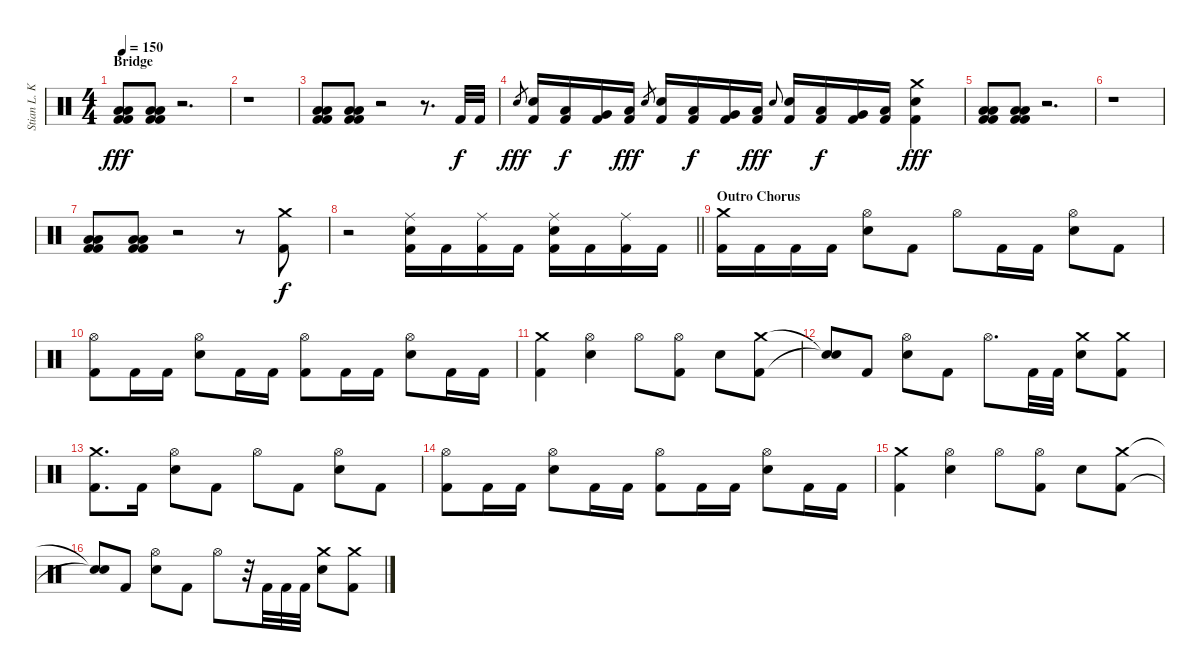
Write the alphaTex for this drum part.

\track ("Stian L. Kristoffersen" "Stian L. K") {instrument percussion}
\staff {score}
\articulation defaults
\ts (4 4)
\section ("" "Bridge")
\tempo 150
\clef neutral
\ks c
("Low Tom (hit)" "Low Tom (hit)" "Kick (hit) 2" "Kick (hit) 2").8{dy fff} ("Low Tom (hit)" "Low Tom (hit)" "Kick (hit) 2" "Kick (hit) 2").8 r.2{d} |
r.1 |
("Low Tom (hit)" "Low Tom (hit)" "Kick (hit) 2" "Kick (hit) 2").8 ("Low Tom (hit)" "Low Tom (hit)" "Kick (hit) 2" "Kick (hit) 2").8 r.2 r.8{d} "Kick (hit) 2".32{dy f} "Kick (hit) 2".32 |
"Electric Snare (hit)".8{gr dy fff} ("Electric Snare (hit)" "Kick (hit) 2").16 ("Low Tom (hit)" "Kick (hit) 2").16{dy f} ("Very Low Tom (hit)" "Kick (hit) 2").16 ("Low Floor Tom (hit)" "Kick (hit) 2").16{dy fff} "Electric Snare (hit)".8{gr} ("Electric Snare (hit)" "Kick (hit) 2").16 ("Low Tom (hit)" "Kick (hit) 2").16{dy f} ("Very Low Tom (hit)" "Kick (hit) 2").16 ("Low Floor Tom (hit)" "Kick (hit) 2").16{dy fff} "Electric Snare (hit)".8{gr onbeat} ("Electric Snare (hit)" "Kick (hit) 2").16 ("Low Tom (hit)" "Kick (hit) 2").16{dy f} ("Very Low Tom (hit)" "Kick (hit) 2").16 ("Low Floor Tom (hit)" "Kick (hit) 2").16 ("Crash medium (hit)" "Electric Snare (hit)" "Kick (hit) 2").4{dy fff} |
("Low Tom (hit)" "Low Tom (hit)" "Kick (hit) 2" "Kick (hit) 2").8 ("Low Tom (hit)" "Low Tom (hit)" "Kick (hit) 2" "Kick (hit) 2").8 r.2{d} |
r.1 |
("Low Tom (hit)" "Low Tom (hit)" "Kick (hit) 2" "Kick (hit) 2").8 ("Low Tom (hit)" "Low Tom (hit)" "Kick (hit) 2" "Kick (hit) 2").8 r.2 r.8 ("Crash medium (hit)" "Kick (hit) 2").8{dy f} |
\barLineRight lightlight
r.2 ("Ride (middle)" "Electric Snare (hit)" "Kick (hit) 2").16 "Kick (hit) 2".16 ("Ride (middle)" "Kick (hit) 2").16 "Kick (hit) 2".16 ("Ride (middle)" "Electric Snare (hit)" "Kick (hit) 2").16 "Kick (hit) 2".16 ("Ride (middle)" "Kick (hit) 2").16 "Kick (hit) 2".16 |
\section ("" "Outro Chorus")
("Crash medium (hit)" "Kick (hit) 2").16 "Kick (hit) 2".16 "Kick (hit) 2".16 "Kick (hit) 2".16 ("Hi-Hat (open)" "Electric Snare (hit)").8 "Kick (hit) 2".8 "Hi-Hat (open)".8 "Kick (hit) 2".16 "Kick (hit) 2".16 ("Hi-Hat (open)" "Electric Snare (hit)").8 "Kick (hit) 2".8 |
("Hi-Hat (open)" "Kick (hit) 2").8 "Kick (hit) 2".16 "Kick (hit) 2".16 ("Hi-Hat (open)" "Electric Snare (hit)").8 "Kick (hit) 2".16 "Kick (hit) 2".16 ("Hi-Hat (open)" "Kick (hit) 2").8 "Kick (hit) 2".16 "Kick (hit) 2".16 ("Hi-Hat (open)" "Electric Snare (hit)").8 "Kick (hit) 2".16 "Kick (hit) 2".16 |
("Crash medium (hit)" "Kick (hit) 2").4 ("Hi-Hat (open)" "Electric Snare (hit)").4 "Hi-Hat (open)".8 ("Hi-Hat (open)" "Kick (hit) 2").8 "Electric Snare (hit)".8 ("Crash medium (hit)" "Kick (hit) 2").8 |
("Snare (hit)"{t} "Snare (hit)"{t}).8 "Kick (hit) 2".8 ("Hi-Hat (open)" "Electric Snare (hit)").8 "Kick (hit) 2".8 "Hi-Hat (open)".8{d} "Kick (hit) 2".32 "Kick (hit) 2".32 ("Crash medium (hit)" "Electric Snare (hit)").8 ("Crash medium (hit)" "Kick (hit) 2").8 |
("Crash medium (hit)" "Kick (hit) 2").8{d} "Kick (hit) 2".16 ("Hi-Hat (open)" "Electric Snare (hit)").8 "Kick (hit) 2".8 "Hi-Hat (open)".8 "Kick (hit) 2".8 ("Hi-Hat (open)" "Electric Snare (hit)").8 "Kick (hit) 2".8 |
("Hi-Hat (open)" "Kick (hit) 2").8 "Kick (hit) 2".16 "Kick (hit) 2".16 ("Hi-Hat (open)" "Electric Snare (hit)").8 "Kick (hit) 2".16 "Kick (hit) 2".16 ("Hi-Hat (open)" "Kick (hit) 2").8 "Kick (hit) 2".16 "Kick (hit) 2".16 ("Hi-Hat (open)" "Electric Snare (hit)").8 "Kick (hit) 2".16 "Kick (hit) 2".16 |
("Crash medium (hit)" "Kick (hit) 2").4 ("Hi-Hat (open)" "Electric Snare (hit)").4 "Hi-Hat (open)".8 ("Hi-Hat (open)" "Kick (hit) 2").8 "Electric Snare (hit)".8 ("Crash medium (hit)" "Kick (hit) 2").8 |
("Snare (hit)"{t} "Snare (hit)"{t}).8 "Kick (hit) 2".8 ("Hi-Hat (open)" "Electric Snare (hit)").8 "Kick (hit) 2".8 "Hi-Hat (open)".8 r.32 "Kick (hit) 2".32 "Kick (hit) 2".32 "Kick (hit) 2".32 ("Crash medium (hit)" "Electric Snare (hit)").8 ("Crash medium (hit)" "Kick (hit) 2").8
